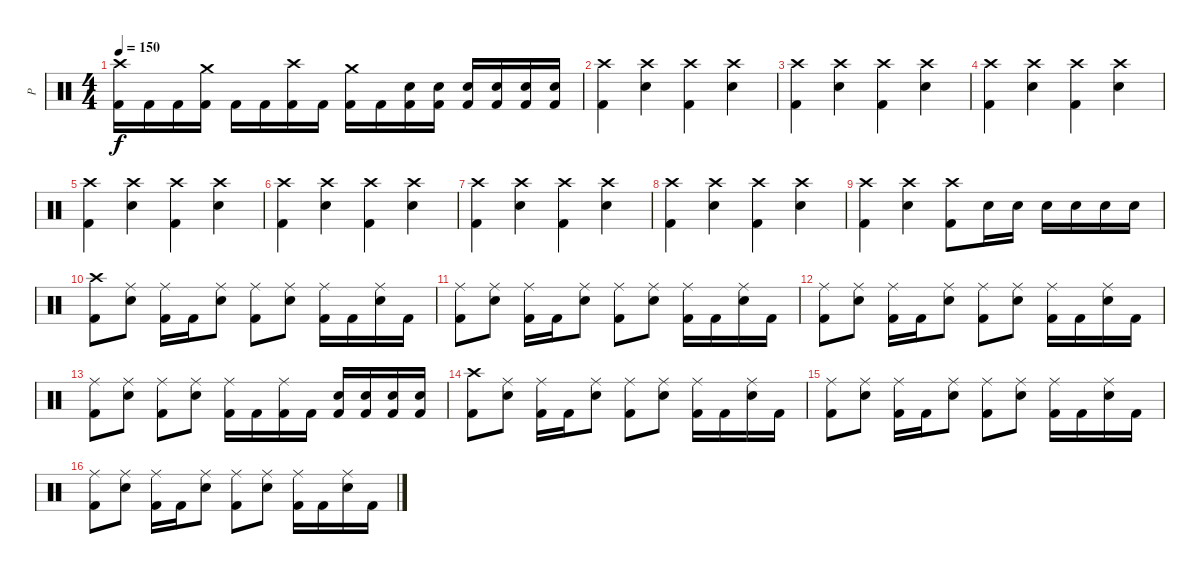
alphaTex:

\track ("P" "P") {instrument percussion}
\staff {score}
\articulation defaults
\ts (4 4)
\tempo 150
\clef neutral
\ks c
("Crash high (hit)" "Kick (hit) 2").16{dy f} "Kick (hit) 2".16 "Kick (hit) 2".16 ("Crash medium (hit)" "Kick (hit) 2").16 "Kick (hit) 2".16 "Kick (hit) 2".16 ("Crash high (hit)" "Kick (hit) 2").16 "Kick (hit) 2".16 ("Crash medium (hit)" "Kick (hit) 2").16 "Kick (hit) 2".16 ("Electric Snare (hit)" "Kick (hit) 2").16 ("Electric Snare (hit)" "Kick (hit) 2").16 ("Electric Snare (hit)" "Kick (hit) 2").16 ("Electric Snare (hit)" "Kick (hit) 2").16 ("Electric Snare (hit)" "Kick (hit) 2").16 ("Electric Snare (hit)" "Kick (hit) 2").16 |
("Crash high (hit)" "Kick (hit) 2").4 ("Crash high (hit)" "Electric Snare (hit)").4 ("Crash high (hit)" "Kick (hit) 2").4 ("Crash high (hit)" "Electric Snare (hit)").4 |
("Crash high (hit)" "Kick (hit) 2").4 ("Crash high (hit)" "Electric Snare (hit)").4 ("Crash high (hit)" "Kick (hit) 2").4 ("Crash high (hit)" "Electric Snare (hit)").4 |
("Crash high (hit)" "Kick (hit) 2").4 ("Crash high (hit)" "Electric Snare (hit)").4 ("Crash high (hit)" "Kick (hit) 2").4 ("Crash high (hit)" "Electric Snare (hit)").4 |
("Crash high (hit)" "Kick (hit) 2").4 ("Crash high (hit)" "Electric Snare (hit)").4 ("Crash high (hit)" "Kick (hit) 2").4 ("Crash high (hit)" "Electric Snare (hit)").4 |
("Crash high (hit)" "Kick (hit) 2").4 ("Crash high (hit)" "Electric Snare (hit)").4 ("Crash high (hit)" "Kick (hit) 2").4 ("Crash high (hit)" "Electric Snare (hit)").4 |
("Crash high (hit)" "Kick (hit) 2").4 ("Crash high (hit)" "Electric Snare (hit)").4 ("Crash high (hit)" "Kick (hit) 2").4 ("Crash high (hit)" "Electric Snare (hit)").4 |
("Crash high (hit)" "Kick (hit) 2").4 ("Crash high (hit)" "Electric Snare (hit)").4 ("Crash high (hit)" "Kick (hit) 2").4 ("Crash high (hit)" "Electric Snare (hit)").4 |
("Crash high (hit)" "Kick (hit) 2").4 ("Crash high (hit)" "Electric Snare (hit)").4 ("Crash high (hit)" "Kick (hit) 2").8 "Electric Snare (hit)".16 "Electric Snare (hit)".16 "Electric Snare (hit)".16 "Electric Snare (hit)".16 "Electric Snare (hit)".16 "Electric Snare (hit)".16 |
("Crash high (hit)" "Kick (hit) 2").8 ("Ride (middle)" "Electric Snare (hit)").8 ("Ride (middle)" "Kick (hit) 2").16 "Kick (hit) 2".16 ("Ride (middle)" "Electric Snare (hit)").8 ("Ride (middle)" "Kick (hit) 2").8 ("Ride (middle)" "Electric Snare (hit)").8 ("Ride (middle)" "Kick (hit) 2").16 "Kick (hit) 2".16 ("Ride (middle)" "Electric Snare (hit)").16 "Kick (hit) 2".16 |
("Ride (middle)" "Kick (hit) 2").8 ("Ride (middle)" "Electric Snare (hit)").8 ("Ride (middle)" "Kick (hit) 2").16 "Kick (hit) 2".16 ("Ride (middle)" "Electric Snare (hit)").8 ("Ride (middle)" "Kick (hit) 2").8 ("Ride (middle)" "Electric Snare (hit)").8 ("Ride (middle)" "Kick (hit) 2").16 "Kick (hit) 2".16 ("Ride (middle)" "Electric Snare (hit)").16 "Kick (hit) 2".16 |
("Ride (middle)" "Kick (hit) 2").8 ("Ride (middle)" "Electric Snare (hit)").8 ("Ride (middle)" "Kick (hit) 2").16 "Kick (hit) 2".16 ("Ride (middle)" "Electric Snare (hit)").8 ("Ride (middle)" "Kick (hit) 2").8 ("Ride (middle)" "Electric Snare (hit)").8 ("Ride (middle)" "Kick (hit) 2").16 "Kick (hit) 2".16 ("Ride (middle)" "Electric Snare (hit)").16 "Kick (hit) 2".16 |
("Ride (middle)" "Kick (hit) 2").8 ("Ride (middle)" "Electric Snare (hit)").8 ("Ride (middle)" "Kick (hit) 2").8 ("Ride (middle)" "Electric Snare (hit)").8 ("Ride (middle)" "Kick (hit) 2").16 "Kick (hit) 2".16 ("Ride (middle)" "Kick (hit) 2").16 "Kick (hit) 2".16 ("Electric Snare (hit)" "Kick (hit) 2").16 ("Electric Snare (hit)" "Kick (hit) 2").16 ("Electric Snare (hit)" "Kick (hit) 2").16 ("Electric Snare (hit)" "Kick (hit) 2").16 |
("Crash high (hit)" "Kick (hit) 2").8 ("Ride (middle)" "Electric Snare (hit)").8 ("Ride (middle)" "Kick (hit) 2").16 "Kick (hit) 2".16 ("Ride (middle)" "Electric Snare (hit)").8 ("Ride (middle)" "Kick (hit) 2").8 ("Ride (middle)" "Electric Snare (hit)").8 ("Ride (middle)" "Kick (hit) 2").16 "Kick (hit) 2".16 ("Ride (middle)" "Electric Snare (hit)").16 "Kick (hit) 2".16 |
("Ride (middle)" "Kick (hit) 2").8 ("Ride (middle)" "Electric Snare (hit)").8 ("Ride (middle)" "Kick (hit) 2").16 "Kick (hit) 2".16 ("Ride (middle)" "Electric Snare (hit)").8 ("Ride (middle)" "Kick (hit) 2").8 ("Ride (middle)" "Electric Snare (hit)").8 ("Ride (middle)" "Kick (hit) 2").16 "Kick (hit) 2".16 ("Ride (middle)" "Electric Snare (hit)").16 "Kick (hit) 2".16 |
("Ride (middle)" "Kick (hit) 2").8 ("Ride (middle)" "Electric Snare (hit)").8 ("Ride (middle)" "Kick (hit) 2").16 "Kick (hit) 2".16 ("Ride (middle)" "Electric Snare (hit)").8 ("Ride (middle)" "Kick (hit) 2").8 ("Ride (middle)" "Electric Snare (hit)").8 ("Ride (middle)" "Kick (hit) 2").16 "Kick (hit) 2".16 ("Ride (middle)" "Electric Snare (hit)").16 "Kick (hit) 2".16
